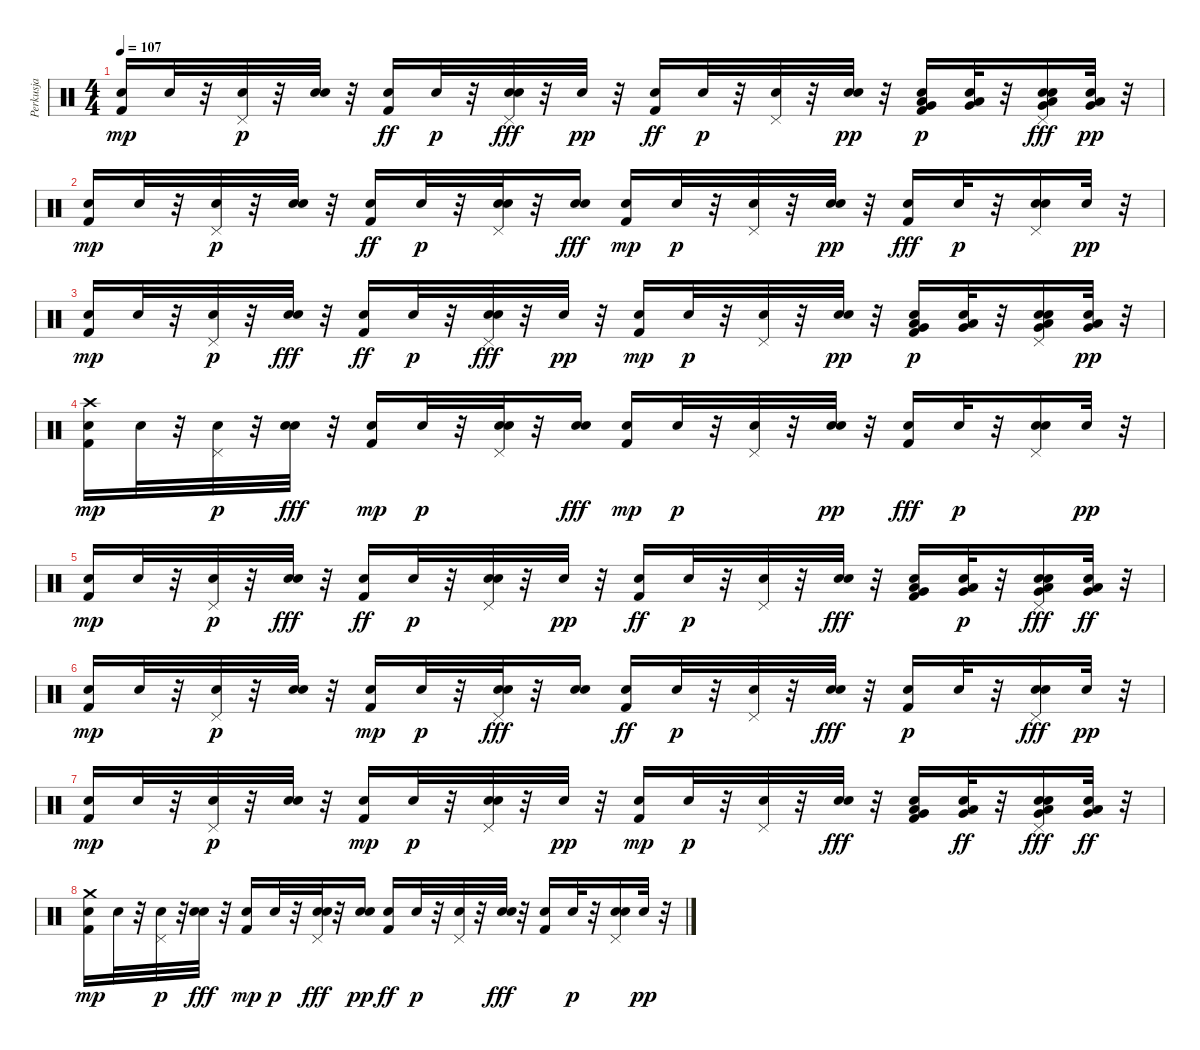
\track ("Perkusja" "Perkusja") {instrument percussion}
\staff {score}
\articulation defaults
\ts (4 4)
\tempo 107
\clef neutral
\ks c
("Kick (hit) 2" "Snare (hit) 2").16{dy mp} "Snare (hit) 2".32 r.32 ("Pedal Hi-Hat (hit)" "Snare (hit) 2").32{dy p} r.32 ("Electric Snare (hit)" "Snare (hit) 2").32 r.32 ("Snare (hit) 2" "Kick (hit) 2").16{dy ff} "Snare (hit) 2".32{dy p} r.32 ("Snare (hit) 2" "Electric Snare (hit)" "Pedal Hi-Hat (hit)").32{dy fff} r.32 "Snare (hit) 2".32{dy pp} r.32 ("Snare (hit) 2" "Kick (hit) 2").16{dy ff} "Snare (hit) 2".32{dy p} r.32 ("Snare (hit) 2" "Pedal Hi-Hat (hit)").32 r.32 ("Electric Snare (hit)" "Snare (hit) 2").32{dy pp} r.32 ("Low Floor Tom (hit)" "Very Low Tom (hit)" "Kick (hit) 2" "Snare (hit) 2").16{dy p} ("Very Low Tom (hit)" "Low Floor Tom (hit)" "Snare (hit) 2").32 r.32 ("Low Floor Tom (hit)" "Very Low Tom (hit)" "Snare (hit) 2" "Pedal Hi-Hat (hit)" "Electric Snare (hit)").16{dy fff} ("Low Floor Tom (hit)" "Very Low Tom (hit)" "Snare (hit) 2").32{dy pp} r.32 |
("Kick (hit) 2" "Snare (hit) 2").16{dy mp} "Snare (hit) 2".32 r.32 ("Pedal Hi-Hat (hit)" "Snare (hit) 2").32{dy p} r.32 ("Electric Snare (hit)" "Snare (hit) 2").32 r.32 ("Snare (hit) 2" "Kick (hit) 2").16{dy ff} "Snare (hit) 2".32{dy p} r.32 ("Pedal Hi-Hat (hit)" "Electric Snare (hit)" "Snare (hit) 2").32 r.32 ("Snare (hit) 2" "Electric Snare (hit)").16{dy fff} ("Kick (hit) 2" "Snare (hit) 2").16{dy mp} "Snare (hit) 2".32{dy p} r.32 ("Pedal Hi-Hat (hit)" "Snare (hit) 2").32 r.32 ("Electric Snare (hit)" "Snare (hit) 2").32{dy pp} r.32 ("Snare (hit) 2" "Kick (hit) 2").16{dy fff} "Snare (hit) 2".32{dy p} r.32 ("Electric Snare (hit)" "Pedal Hi-Hat (hit)" "Snare (hit) 2").16 "Snare (hit) 2".32{dy pp} r.32 |
("Kick (hit) 2" "Snare (hit) 2").16{dy mp} "Snare (hit) 2".32 r.32 ("Snare (hit) 2" "Pedal Hi-Hat (hit)").32{dy p} r.32 ("Snare (hit) 2" "Electric Snare (hit)").32{dy fff} r.32 ("Snare (hit) 2" "Kick (hit) 2").16{dy ff} "Snare (hit) 2".32{dy p} r.32 ("Snare (hit) 2" "Electric Snare (hit)" "Pedal Hi-Hat (hit)").32{dy fff} r.32 "Snare (hit) 2".32{dy pp} r.32 ("Kick (hit) 2" "Snare (hit) 2").16{dy mp} "Snare (hit) 2".32{dy p} r.32 ("Snare (hit) 2" "Pedal Hi-Hat (hit)").32 r.32 ("Electric Snare (hit)" "Snare (hit) 2").32{dy pp} r.32 ("Kick (hit) 2" "Low Floor Tom (hit)" "Very Low Tom (hit)" "Snare (hit) 2").16{dy p} ("Very Low Tom (hit)" "Low Floor Tom (hit)" "Snare (hit) 2").32 r.32 ("Very Low Tom (hit)" "Electric Snare (hit)" "Low Floor Tom (hit)" "Pedal Hi-Hat (hit)" "Snare (hit) 2").16 ("Very Low Tom (hit)" "Low Floor Tom (hit)" "Snare (hit) 2").32{dy pp} r.32 |
("Crash high (hit)" "Kick (hit) 2" "Snare (hit) 2").16{dy mp} "Snare (hit) 2".32 r.32 ("Pedal Hi-Hat (hit)" "Snare (hit) 2").32{dy p} r.32 ("Snare (hit) 2" "Electric Snare (hit)").32{dy fff} r.32 ("Kick (hit) 2" "Snare (hit) 2").16{dy mp} "Snare (hit) 2".32{dy p} r.32 ("Electric Snare (hit)" "Snare (hit) 2" "Pedal Hi-Hat (hit)").32 r.32 ("Snare (hit) 2" "Electric Snare (hit)").16{dy fff} ("Kick (hit) 2" "Snare (hit) 2").16{dy mp} "Snare (hit) 2".32{dy p} r.32 ("Snare (hit) 2" "Pedal Hi-Hat (hit)").32 r.32 ("Electric Snare (hit)" "Snare (hit) 2").32{dy pp} r.32 ("Snare (hit) 2" "Kick (hit) 2").16{dy fff} "Snare (hit) 2".32{dy p} r.32 ("Pedal Hi-Hat (hit)" "Electric Snare (hit)" "Snare (hit) 2").16 "Snare (hit) 2".32{dy pp} r.32 |
("Kick (hit) 2" "Snare (hit) 2").16{dy mp} "Snare (hit) 2".32 r.32 ("Snare (hit) 2" "Pedal Hi-Hat (hit)").32{dy p} r.32 ("Snare (hit) 2" "Electric Snare (hit)").32{dy fff} r.32 ("Snare (hit) 2" "Kick (hit) 2").16{dy ff} "Snare (hit) 2".32{dy p} r.32 ("Pedal Hi-Hat (hit)" "Electric Snare (hit)" "Snare (hit) 2").32 r.32 "Snare (hit) 2".32{dy pp} r.32 ("Snare (hit) 2" "Kick (hit) 2").16{dy ff} "Snare (hit) 2".32{dy p} r.32 ("Snare (hit) 2" "Pedal Hi-Hat (hit)").32 r.32 ("Snare (hit) 2" "Electric Snare (hit)").32{dy fff} r.32 ("Snare (hit) 2" "Very Low Tom (hit)" "Low Floor Tom (hit)" "Kick (hit) 2").16 ("Low Floor Tom (hit)" "Very Low Tom (hit)" "Snare (hit) 2").32{dy p} r.32 ("Electric Snare (hit)" "Very Low Tom (hit)" "Pedal Hi-Hat (hit)" "Snare (hit) 2" "Low Floor Tom (hit)").16{dy fff} ("Low Floor Tom (hit)" "Snare (hit) 2" "Very Low Tom (hit)").32{dy ff} r.32 |
("Kick (hit) 2" "Snare (hit) 2").16{dy mp} "Snare (hit) 2".32 r.32 ("Snare (hit) 2" "Pedal Hi-Hat (hit)").32{dy p} r.32 ("Electric Snare (hit)" "Snare (hit) 2").32 r.32 ("Kick (hit) 2" "Snare (hit) 2").16{dy mp} "Snare (hit) 2".32{dy p} r.32 ("Snare (hit) 2" "Pedal Hi-Hat (hit)" "Electric Snare (hit)").32{dy fff} r.32 ("Snare (hit) 2" "Electric Snare (hit)").16 ("Snare (hit) 2" "Kick (hit) 2").16{dy ff} "Snare (hit) 2".32{dy p} r.32 ("Pedal Hi-Hat (hit)" "Snare (hit) 2").32 r.32 ("Snare (hit) 2" "Electric Snare (hit)").32{dy fff} r.32 ("Kick (hit) 2" "Snare (hit) 2").16{dy p} "Snare (hit) 2".32 r.32 ("Snare (hit) 2" "Electric Snare (hit)" "Pedal Hi-Hat (hit)").16{dy fff} "Snare (hit) 2".32{dy pp} r.32 |
("Kick (hit) 2" "Snare (hit) 2").16{dy mp} "Snare (hit) 2".32 r.32 ("Pedal Hi-Hat (hit)" "Snare (hit) 2").32{dy p} r.32 ("Electric Snare (hit)" "Snare (hit) 2").32 r.32 ("Kick (hit) 2" "Snare (hit) 2").16{dy mp} "Snare (hit) 2".32{dy p} r.32 ("Electric Snare (hit)" "Snare (hit) 2" "Pedal Hi-Hat (hit)").32 r.32 "Snare (hit) 2".32{dy pp} r.32 ("Kick (hit) 2" "Snare (hit) 2").16{dy mp} "Snare (hit) 2".32{dy p} r.32 ("Snare (hit) 2" "Pedal Hi-Hat (hit)").32 r.32 ("Snare (hit) 2" "Electric Snare (hit)").32{dy fff} r.32 ("Snare (hit) 2" "Kick (hit) 2" "Very Low Tom (hit)" "Low Floor Tom (hit)").16 ("Very Low Tom (hit)" "Snare (hit) 2" "Low Floor Tom (hit)").32{dy ff} r.32 ("Pedal Hi-Hat (hit)" "Electric Snare (hit)" "Snare (hit) 2" "Low Floor Tom (hit)" "Very Low Tom (hit)").16{dy fff} ("Snare (hit) 2" "Low Floor Tom (hit)" "Very Low Tom (hit)").32{dy ff} r.32 |
("Kick (hit) 2" "Crash medium (hit)" "Snare (hit) 2").16{dy mp} "Snare (hit) 2".32 r.32 ("Pedal Hi-Hat (hit)" "Snare (hit) 2").32{dy p} r.32 ("Snare (hit) 2" "Electric Snare (hit)").32{dy fff} r.32 ("Kick (hit) 2" "Snare (hit) 2").16{dy mp} "Snare (hit) 2".32{dy p} r.32 ("Snare (hit) 2" "Pedal Hi-Hat (hit)" "Electric Snare (hit)").32{dy fff} r.32 ("Electric Snare (hit)" "Snare (hit) 2").16{dy pp} ("Snare (hit) 2" "Kick (hit) 2").16{dy ff} "Snare (hit) 2".32{dy p} r.32 ("Snare (hit) 2" "Pedal Hi-Hat (hit)").32 r.32 ("Snare (hit) 2" "Electric Snare (hit)").32{dy fff} r.32 ("Snare (hit) 2" "Kick (hit) 2").16 "Snare (hit) 2".32{dy p} r.32 ("Pedal Hi-Hat (hit)" "Electric Snare (hit)" "Snare (hit) 2").16 "Snare (hit) 2".32{dy pp} r.32
